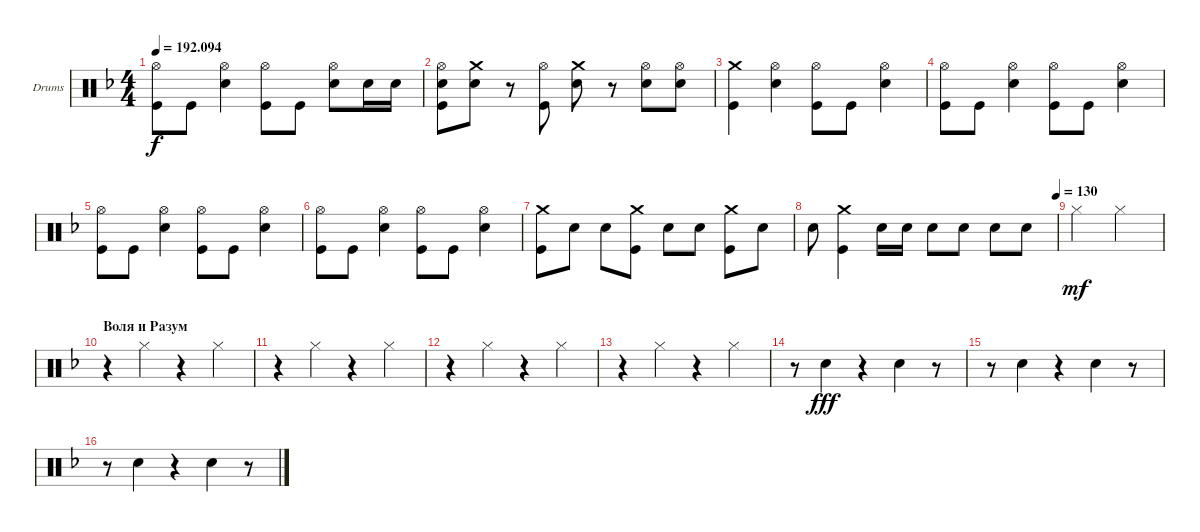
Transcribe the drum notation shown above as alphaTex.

\bracketExtendMode groupsimilarinstruments
\firstSystemTrackNameOrientation horizontal
\otherSystemsTrackNameOrientation horizontal
\track ("Александр Манякин" "Drums") {instrument percussion}
\staff {score}
\articulation defaults
\ts (4 4)
\tempo
192.094
\accidentals auto
\clef neutral
\ottava regular
\simile none
\ks f
("Hi-Hat (open)" "Kick (hit)").8{dy f} "Kick (hit)".8 ("Hi-Hat (open)" "Snare (hit) 2").4 ("Hi-Hat (open)" "Kick (hit)").8 "Kick (hit)".8 ("Hi-Hat (open)" "Snare (hit) 2").8 "Snare (hit) 2".16 "Snare (hit) 2".16 |
("Hi-Hat (open)" "Snare (hit) 2" "Kick (hit)").8 ("Crash medium (hit)" "Snare (hit) 2").8 r.8 ("Hi-Hat (open)" "Kick (hit)").8 ("Crash medium (hit)" "Snare (hit) 2").8 r.8 ("Hi-Hat (open)" "Snare (hit) 2").8 ("Hi-Hat (open)" "Snare (hit) 2").8 |
("Crash medium (hit)" "Kick (hit)").4 ("Hi-Hat (open)" "Snare (hit) 2").4 ("Hi-Hat (open)" "Kick (hit)").8 "Kick (hit)".8 ("Hi-Hat (open)" "Snare (hit) 2").4 |
("Hi-Hat (open)" "Kick (hit)").8 "Kick (hit)".8 ("Hi-Hat (open)" "Snare (hit) 2").4 ("Hi-Hat (open)" "Kick (hit)").8 "Kick (hit)".8 ("Hi-Hat (open)" "Snare (hit) 2").4 |
("Hi-Hat (open)" "Kick (hit)").8 "Kick (hit)".8 ("Hi-Hat (open)" "Snare (hit) 2").4 ("Hi-Hat (open)" "Kick (hit)").8 "Kick (hit)".8 ("Hi-Hat (open)" "Snare (hit) 2").4 |
("Hi-Hat (open)" "Kick (hit)").8 "Kick (hit)".8 ("Hi-Hat (open)" "Snare (hit) 2").4 ("Hi-Hat (open)" "Kick (hit)").8 "Kick (hit)".8 ("Hi-Hat (open)" "Snare (hit) 2").4 |
("Crash medium (hit)" "Kick (hit)").8 "Snare (hit) 2".8 "Snare (hit) 2".8 ("Crash medium (hit)" "Kick (hit)").8 "Snare (hit) 2".8 "Snare (hit) 2".8 ("Crash medium (hit)" "Kick (hit)").8 "Snare (hit) 2".8 |
\tempo (130 1)
"Snare (hit) 2".8 ("Crash medium (hit)" "Kick (hit)").4 "Snare (hit) 2".16 "Snare (hit) 2".16 "Snare (hit) 2".8 "Snare (hit) 2".8 "Snare (hit) 2".8 "Snare (hit) 2".8 |
"Hi-Hat (closed)".2{dy mf} "Hi-Hat (closed)".2 |
\section ("" "Воля и Разум")
r.4 "Hi-Hat (closed)".4 r.4 "Hi-Hat (closed)".4 |
r.4 "Hi-Hat (closed)".4 r.4 "Hi-Hat (closed)".4 |
r.4 "Hi-Hat (closed)".4 r.4 "Hi-Hat (closed)".4 |
r.4 "Hi-Hat (closed)".4 r.4 "Hi-Hat (closed)".4 |
r.8 "Snare (hit) 2".4{dy fff} r.4 "Snare (hit) 2".4 r.8 |
r.8 "Snare (hit) 2".4 r.4 "Snare (hit) 2".4 r.8 |
r.8 "Snare (hit) 2".4 r.4 "Snare (hit) 2".4 r.8
